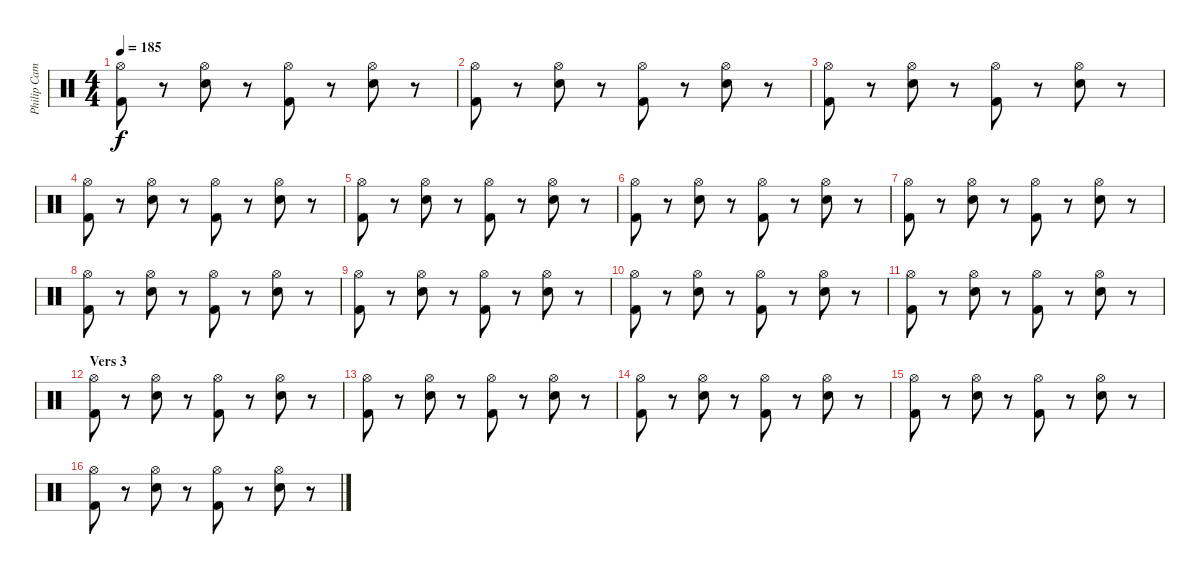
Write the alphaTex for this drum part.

\track ("Philip Campbell" "Philip Cam") {instrument percussion}
\staff {score}
\articulation defaults
\ts (4 4)
\tempo 185
\clef neutral
\ks c
("Hi-Hat (open)" "Kick (hit) 2").8{dy f} r.8 ("Hi-Hat (open)" "Electric Snare (hit)").8 r.8 ("Hi-Hat (open)" "Kick (hit) 2").8 r.8 ("Hi-Hat (open)" "Electric Snare (hit)").8 r.8 |
("Hi-Hat (open)" "Kick (hit) 2").8 r.8 ("Hi-Hat (open)" "Electric Snare (hit)").8 r.8 ("Hi-Hat (open)" "Kick (hit) 2").8 r.8 ("Hi-Hat (open)" "Electric Snare (hit)").8 r.8 |
("Hi-Hat (open)" "Kick (hit) 2").8 r.8 ("Hi-Hat (open)" "Electric Snare (hit)").8 r.8 ("Hi-Hat (open)" "Kick (hit) 2").8 r.8 ("Hi-Hat (open)" "Electric Snare (hit)").8 r.8 |
("Hi-Hat (open)" "Kick (hit) 2").8 r.8 ("Hi-Hat (open)" "Electric Snare (hit)").8 r.8 ("Hi-Hat (open)" "Kick (hit) 2").8 r.8 ("Hi-Hat (open)" "Electric Snare (hit)").8 r.8 |
("Hi-Hat (open)" "Kick (hit) 2").8 r.8 ("Hi-Hat (open)" "Electric Snare (hit)").8 r.8 ("Hi-Hat (open)" "Kick (hit) 2").8 r.8 ("Hi-Hat (open)" "Electric Snare (hit)").8 r.8 |
("Hi-Hat (open)" "Kick (hit) 2").8 r.8 ("Hi-Hat (open)" "Electric Snare (hit)").8 r.8 ("Hi-Hat (open)" "Kick (hit) 2").8 r.8 ("Hi-Hat (open)" "Electric Snare (hit)").8 r.8 |
("Hi-Hat (open)" "Kick (hit) 2").8 r.8 ("Hi-Hat (open)" "Electric Snare (hit)").8 r.8 ("Hi-Hat (open)" "Kick (hit) 2").8 r.8 ("Hi-Hat (open)" "Electric Snare (hit)").8 r.8 |
("Hi-Hat (open)" "Kick (hit) 2").8 r.8 ("Hi-Hat (open)" "Electric Snare (hit)").8 r.8 ("Hi-Hat (open)" "Kick (hit) 2").8 r.8 ("Hi-Hat (open)" "Electric Snare (hit)").8 r.8 |
("Hi-Hat (open)" "Kick (hit) 2").8 r.8 ("Hi-Hat (open)" "Electric Snare (hit)").8 r.8 ("Hi-Hat (open)" "Kick (hit) 2").8 r.8 ("Hi-Hat (open)" "Electric Snare (hit)").8 r.8 |
("Hi-Hat (open)" "Kick (hit) 2").8 r.8 ("Hi-Hat (open)" "Electric Snare (hit)").8 r.8 ("Hi-Hat (open)" "Kick (hit) 2").8 r.8 ("Hi-Hat (open)" "Electric Snare (hit)").8 r.8 |
("Hi-Hat (open)" "Kick (hit) 2").8 r.8 ("Hi-Hat (open)" "Electric Snare (hit)").8 r.8 ("Hi-Hat (open)" "Kick (hit) 2").8 r.8 ("Hi-Hat (open)" "Electric Snare (hit)").8 r.8 |
\section ("" "Vers 3")
("Hi-Hat (open)" "Kick (hit) 2").8 r.8 ("Hi-Hat (open)" "Electric Snare (hit)").8 r.8 ("Hi-Hat (open)" "Kick (hit) 2").8 r.8 ("Hi-Hat (open)" "Electric Snare (hit)").8 r.8 |
("Hi-Hat (open)" "Kick (hit) 2").8 r.8 ("Hi-Hat (open)" "Electric Snare (hit)").8 r.8 ("Hi-Hat (open)" "Kick (hit) 2").8 r.8 ("Hi-Hat (open)" "Electric Snare (hit)").8 r.8 |
("Hi-Hat (open)" "Kick (hit) 2").8 r.8 ("Hi-Hat (open)" "Electric Snare (hit)").8 r.8 ("Hi-Hat (open)" "Kick (hit) 2").8 r.8 ("Hi-Hat (open)" "Electric Snare (hit)").8 r.8 |
("Hi-Hat (open)" "Kick (hit) 2").8 r.8 ("Hi-Hat (open)" "Electric Snare (hit)").8 r.8 ("Hi-Hat (open)" "Kick (hit) 2").8 r.8 ("Hi-Hat (open)" "Electric Snare (hit)").8 r.8 |
("Hi-Hat (open)" "Kick (hit) 2").8 r.8 ("Hi-Hat (open)" "Electric Snare (hit)").8 r.8 ("Hi-Hat (open)" "Kick (hit) 2").8 r.8 ("Hi-Hat (open)" "Electric Snare (hit)").8 r.8
